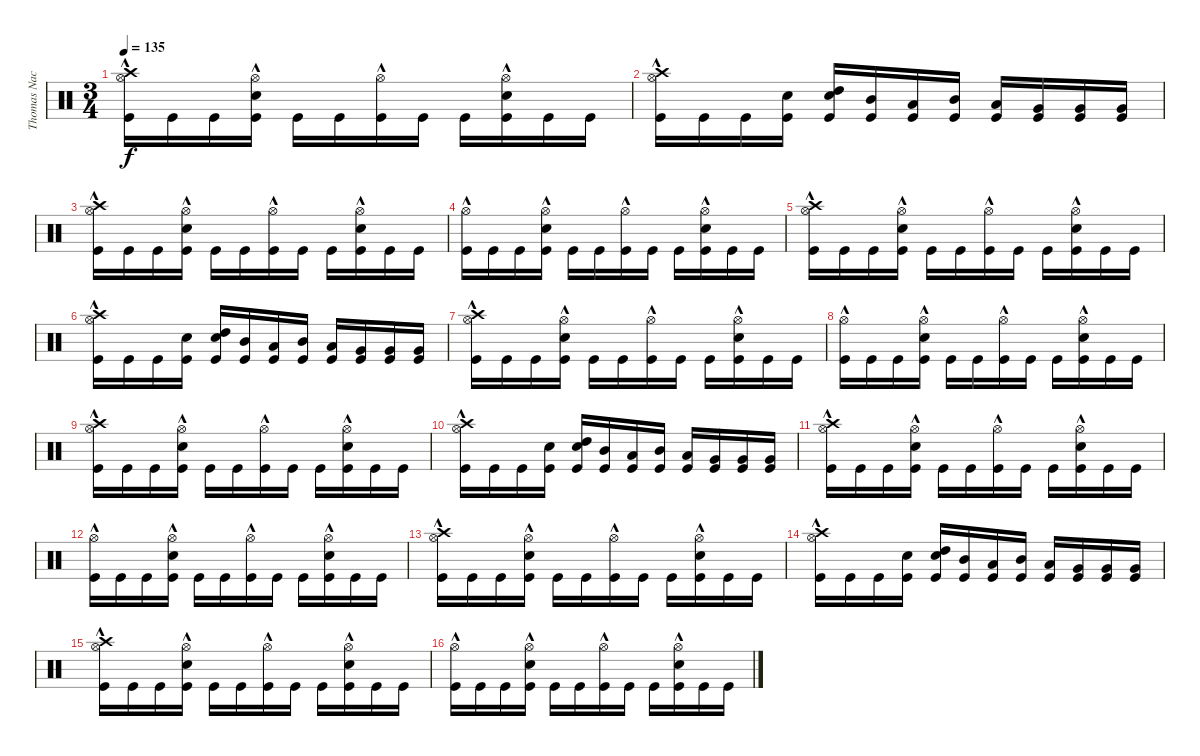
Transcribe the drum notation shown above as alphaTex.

\track ("Thomas Nack" "Thomas Nac") {instrument percussion}
\staff {score}
\articulation defaults
\ts (3 4)
\tempo 135
\clef neutral
\ks c
("Crash high (hit)" "Hi-Hat (open)"{hac} "Kick (hit)").16{dy f} "Kick (hit)".16 "Kick (hit)".16 ("Hi-Hat (open)"{hac} "Kick (hit)" "Electric Snare (hit)").16 "Kick (hit)".16 "Kick (hit)".16 ("Hi-Hat (open)"{hac} "Kick (hit)").16 "Kick (hit)".16 "Kick (hit)".16 ("Hi-Hat (open)"{hac} "Kick (hit)" "Electric Snare (hit)").16 "Kick (hit)".16 "Kick (hit)".16 |
("Crash high (hit)" "Hi-Hat (open)"{hac} "Kick (hit)").16 "Kick (hit)".16 "Kick (hit)".16 ("Electric Snare (hit)" "Kick (hit)").16 ("Electric Snare (hit)" "High Tom (hit)" "Kick (hit)").16 ("Mid Tom (hit)" "Kick (hit)").16 ("Low Tom (hit)" "Kick (hit)").16 ("Mid Tom (hit)" "Kick (hit)").16 ("Low Tom (hit)" "Kick (hit)").16 ("Very Low Tom (hit)" "Kick (hit)").16 ("Very Low Tom (hit)" "Kick (hit)").16 ("Very Low Tom (hit)" "Kick (hit)").16 |
("Crash high (hit)" "Hi-Hat (open)"{hac} "Kick (hit)").16 "Kick (hit)".16 "Kick (hit)".16 ("Hi-Hat (open)"{hac} "Kick (hit)" "Electric Snare (hit)").16 "Kick (hit)".16 "Kick (hit)".16 ("Hi-Hat (open)"{hac} "Kick (hit)").16 "Kick (hit)".16 "Kick (hit)".16 ("Hi-Hat (open)"{hac} "Kick (hit)" "Electric Snare (hit)").16 "Kick (hit)".16 "Kick (hit)".16 |
("Hi-Hat (open)"{hac} "Kick (hit)").16 "Kick (hit)".16 "Kick (hit)".16 ("Hi-Hat (open)"{hac} "Kick (hit)" "Electric Snare (hit)").16 "Kick (hit)".16 "Kick (hit)".16 ("Hi-Hat (open)"{hac} "Kick (hit)").16 "Kick (hit)".16 "Kick (hit)".16 ("Hi-Hat (open)"{hac} "Kick (hit)" "Electric Snare (hit)").16 "Kick (hit)".16 "Kick (hit)".16 |
("Crash high (hit)" "Hi-Hat (open)"{hac} "Kick (hit)").16 "Kick (hit)".16 "Kick (hit)".16 ("Hi-Hat (open)"{hac} "Kick (hit)" "Electric Snare (hit)").16 "Kick (hit)".16 "Kick (hit)".16 ("Hi-Hat (open)"{hac} "Kick (hit)").16 "Kick (hit)".16 "Kick (hit)".16 ("Hi-Hat (open)"{hac} "Kick (hit)" "Electric Snare (hit)").16 "Kick (hit)".16 "Kick (hit)".16 |
("Crash high (hit)" "Hi-Hat (open)"{hac} "Kick (hit)").16 "Kick (hit)".16 "Kick (hit)".16 ("Electric Snare (hit)" "Kick (hit)").16 ("Electric Snare (hit)" "High Tom (hit)" "Kick (hit)").16 ("Mid Tom (hit)" "Kick (hit)").16 ("Low Tom (hit)" "Kick (hit)").16 ("Mid Tom (hit)" "Kick (hit)").16 ("Low Tom (hit)" "Kick (hit)").16 ("Very Low Tom (hit)" "Kick (hit)").16 ("Very Low Tom (hit)" "Kick (hit)").16 ("Very Low Tom (hit)" "Kick (hit)").16 |
("Crash high (hit)" "Hi-Hat (open)"{hac} "Kick (hit)").16 "Kick (hit)".16 "Kick (hit)".16 ("Hi-Hat (open)"{hac} "Kick (hit)" "Electric Snare (hit)").16 "Kick (hit)".16 "Kick (hit)".16 ("Hi-Hat (open)"{hac} "Kick (hit)").16 "Kick (hit)".16 "Kick (hit)".16 ("Hi-Hat (open)"{hac} "Kick (hit)" "Electric Snare (hit)").16 "Kick (hit)".16 "Kick (hit)".16 |
("Hi-Hat (open)"{hac} "Kick (hit)").16 "Kick (hit)".16 "Kick (hit)".16 ("Hi-Hat (open)"{hac} "Kick (hit)" "Electric Snare (hit)").16 "Kick (hit)".16 "Kick (hit)".16 ("Hi-Hat (open)"{hac} "Kick (hit)").16 "Kick (hit)".16 "Kick (hit)".16 ("Hi-Hat (open)"{hac} "Kick (hit)" "Electric Snare (hit)").16 "Kick (hit)".16 "Kick (hit)".16 |
("Crash high (hit)" "Hi-Hat (open)"{hac} "Kick (hit)").16 "Kick (hit)".16 "Kick (hit)".16 ("Hi-Hat (open)"{hac} "Kick (hit)" "Electric Snare (hit)").16 "Kick (hit)".16 "Kick (hit)".16 ("Hi-Hat (open)"{hac} "Kick (hit)").16 "Kick (hit)".16 "Kick (hit)".16 ("Hi-Hat (open)"{hac} "Kick (hit)" "Electric Snare (hit)").16 "Kick (hit)".16 "Kick (hit)".16 |
("Crash high (hit)" "Hi-Hat (open)"{hac} "Kick (hit)").16 "Kick (hit)".16 "Kick (hit)".16 ("Electric Snare (hit)" "Kick (hit)").16 ("Electric Snare (hit)" "High Tom (hit)" "Kick (hit)").16 ("Mid Tom (hit)" "Kick (hit)").16 ("Low Tom (hit)" "Kick (hit)").16 ("Mid Tom (hit)" "Kick (hit)").16 ("Low Tom (hit)" "Kick (hit)").16 ("Very Low Tom (hit)" "Kick (hit)").16 ("Very Low Tom (hit)" "Kick (hit)").16 ("Very Low Tom (hit)" "Kick (hit)").16 |
("Crash high (hit)" "Hi-Hat (open)"{hac} "Kick (hit)").16 "Kick (hit)".16 "Kick (hit)".16 ("Hi-Hat (open)"{hac} "Kick (hit)" "Electric Snare (hit)").16 "Kick (hit)".16 "Kick (hit)".16 ("Hi-Hat (open)"{hac} "Kick (hit)").16 "Kick (hit)".16 "Kick (hit)".16 ("Hi-Hat (open)"{hac} "Kick (hit)" "Electric Snare (hit)").16 "Kick (hit)".16 "Kick (hit)".16 |
("Hi-Hat (open)"{hac} "Kick (hit)").16 "Kick (hit)".16 "Kick (hit)".16 ("Hi-Hat (open)"{hac} "Kick (hit)" "Electric Snare (hit)").16 "Kick (hit)".16 "Kick (hit)".16 ("Hi-Hat (open)"{hac} "Kick (hit)").16 "Kick (hit)".16 "Kick (hit)".16 ("Hi-Hat (open)"{hac} "Kick (hit)" "Electric Snare (hit)").16 "Kick (hit)".16 "Kick (hit)".16 |
("Crash high (hit)" "Hi-Hat (open)"{hac} "Kick (hit)").16 "Kick (hit)".16 "Kick (hit)".16 ("Hi-Hat (open)"{hac} "Kick (hit)" "Electric Snare (hit)").16 "Kick (hit)".16 "Kick (hit)".16 ("Hi-Hat (open)"{hac} "Kick (hit)").16 "Kick (hit)".16 "Kick (hit)".16 ("Hi-Hat (open)"{hac} "Kick (hit)" "Electric Snare (hit)").16 "Kick (hit)".16 "Kick (hit)".16 |
("Crash high (hit)" "Hi-Hat (open)"{hac} "Kick (hit)").16 "Kick (hit)".16 "Kick (hit)".16 ("Electric Snare (hit)" "Kick (hit)").16 ("Electric Snare (hit)" "High Tom (hit)" "Kick (hit)").16 ("Mid Tom (hit)" "Kick (hit)").16 ("Low Tom (hit)" "Kick (hit)").16 ("Mid Tom (hit)" "Kick (hit)").16 ("Low Tom (hit)" "Kick (hit)").16 ("Very Low Tom (hit)" "Kick (hit)").16 ("Very Low Tom (hit)" "Kick (hit)").16 ("Very Low Tom (hit)" "Kick (hit)").16 |
("Crash high (hit)" "Hi-Hat (open)"{hac} "Kick (hit)").16 "Kick (hit)".16 "Kick (hit)".16 ("Hi-Hat (open)"{hac} "Kick (hit)" "Electric Snare (hit)").16 "Kick (hit)".16 "Kick (hit)".16 ("Hi-Hat (open)"{hac} "Kick (hit)").16 "Kick (hit)".16 "Kick (hit)".16 ("Hi-Hat (open)"{hac} "Kick (hit)" "Electric Snare (hit)").16 "Kick (hit)".16 "Kick (hit)".16 |
("Hi-Hat (open)"{hac} "Kick (hit)").16 "Kick (hit)".16 "Kick (hit)".16 ("Hi-Hat (open)"{hac} "Kick (hit)" "Electric Snare (hit)").16 "Kick (hit)".16 "Kick (hit)".16 ("Hi-Hat (open)"{hac} "Kick (hit)").16 "Kick (hit)".16 "Kick (hit)".16 ("Hi-Hat (open)"{hac} "Kick (hit)" "Electric Snare (hit)").16 "Kick (hit)".16 "Kick (hit)".16
